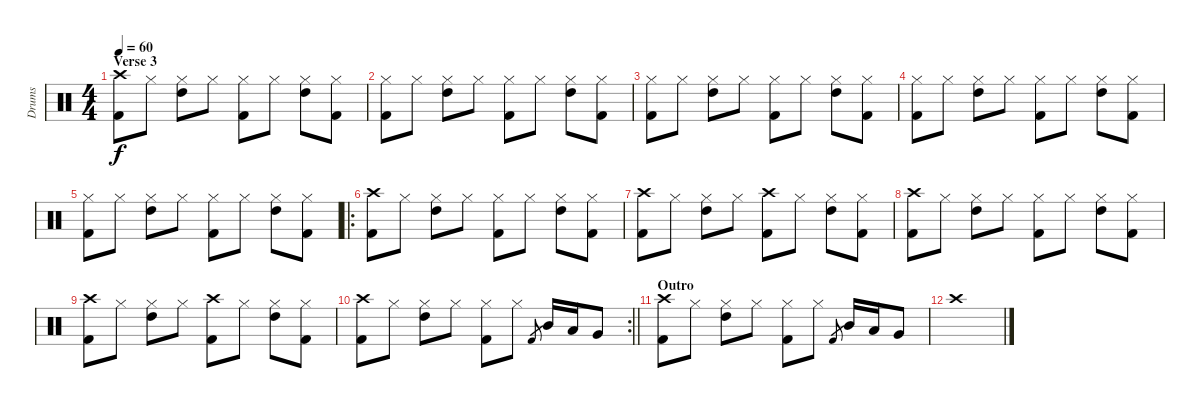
\track ("Drums" "Drums") {instrument percussion}
\staff {score}
\articulation defaults
\ts (4 4)
\section ("" "Verse 3")
\tempo 60
\clef neutral
\ks c
("Crash high (hit)" "Kick (hit) 2").8{dy f} "Hi-Hat (closed)".8 ("Hi-Hat (closed)" "High Tom (hit)").8 "Hi-Hat (closed)".8 ("Hi-Hat (closed)" "Kick (hit) 2").8 "Hi-Hat (closed)".8 ("Hi-Hat (closed)" "High Tom (hit)").8 ("Hi-Hat (closed)" "Kick (hit) 2").8 |
("Hi-Hat (closed)" "Kick (hit) 2").8 "Hi-Hat (closed)".8 ("Hi-Hat (closed)" "High Tom (hit)").8 "Hi-Hat (closed)".8 ("Hi-Hat (closed)" "Kick (hit) 2").8 "Hi-Hat (closed)".8 ("Hi-Hat (closed)" "High Tom (hit)").8 ("Hi-Hat (closed)" "Kick (hit) 2").8 |
("Hi-Hat (closed)" "Kick (hit) 2").8 "Hi-Hat (closed)".8 ("Hi-Hat (closed)" "High Tom (hit)").8 "Hi-Hat (closed)".8 ("Hi-Hat (closed)" "Kick (hit) 2").8 "Hi-Hat (closed)".8 ("Hi-Hat (closed)" "High Tom (hit)").8 ("Hi-Hat (closed)" "Kick (hit) 2").8 |
("Hi-Hat (closed)" "Kick (hit) 2").8 "Hi-Hat (closed)".8 ("Hi-Hat (closed)" "High Tom (hit)").8 "Hi-Hat (closed)".8 ("Hi-Hat (closed)" "Kick (hit) 2").8 "Hi-Hat (closed)".8 ("Hi-Hat (closed)" "High Tom (hit)").8 ("Hi-Hat (closed)" "Kick (hit) 2").8 |
("Hi-Hat (closed)" "Kick (hit) 2").8 "Hi-Hat (closed)".8 ("Hi-Hat (closed)" "High Tom (hit)").8 "Hi-Hat (closed)".8 ("Hi-Hat (closed)" "Kick (hit) 2").8 "Hi-Hat (closed)".8 ("Hi-Hat (closed)" "High Tom (hit)").8 ("Hi-Hat (closed)" "Kick (hit) 2").8 |
\ro
("Crash high (hit)" "Kick (hit) 2").8 "Hi-Hat (closed)".8 ("Hi-Hat (closed)" "High Tom (hit)").8 "Hi-Hat (closed)".8 ("Hi-Hat (closed)" "Kick (hit) 2").8 "Hi-Hat (closed)".8 ("Hi-Hat (closed)" "High Tom (hit)").8 ("Hi-Hat (closed)" "Kick (hit) 2").8 |
("Crash high (hit)" "Kick (hit) 2").8 "Hi-Hat (closed)".8 ("Hi-Hat (closed)" "High Tom (hit)").8 "Hi-Hat (closed)".8 ("Crash high (hit)" "Kick (hit) 2").8 "Hi-Hat (closed)".8 ("Hi-Hat (closed)" "High Tom (hit)").8 ("Hi-Hat (closed)" "Kick (hit) 2").8 |
("Crash high (hit)" "Kick (hit) 2").8 "Hi-Hat (closed)".8 ("Hi-Hat (closed)" "High Tom (hit)").8 "Hi-Hat (closed)".8 ("Hi-Hat (closed)" "Kick (hit) 2").8 "Hi-Hat (closed)".8 ("Hi-Hat (closed)" "High Tom (hit)").8 ("Hi-Hat (closed)" "Kick (hit) 2").8 |
("Crash high (hit)" "Kick (hit) 2").8 "Hi-Hat (closed)".8 ("Hi-Hat (closed)" "High Tom (hit)").8 "Hi-Hat (closed)".8 ("Crash high (hit)" "Kick (hit) 2").8 "Hi-Hat (closed)".8 ("Hi-Hat (closed)" "High Tom (hit)").8 ("Hi-Hat (closed)" "Kick (hit) 2").8 |
\rc 2
\barLineRight lightlight
("Crash high (hit)" "Kick (hit) 2").8 "Hi-Hat (closed)".8 ("Hi-Hat (closed)" "High Tom (hit)").8 "Hi-Hat (closed)".8 ("Hi-Hat (closed)" "Kick (hit) 2").8 "Hi-Hat (closed)".8 "Kick (hit) 2".8{gr} "Mid Tom (hit)".16 "Low Tom (hit)".16 "Very Low Tom (hit)".8 |
\section ("" "Outro")
("Crash high (hit)" "Kick (hit) 2").8 "Hi-Hat (closed)".8 ("Hi-Hat (closed)" "High Tom (hit)").8 "Hi-Hat (closed)".8 ("Hi-Hat (closed)" "Kick (hit) 2").8 "Hi-Hat (closed)".8 "Kick (hit) 2".8{gr} "Mid Tom (hit)".16 "Low Tom (hit)".16 "Very Low Tom (hit)".8 |
"Crash high (hit)".1
